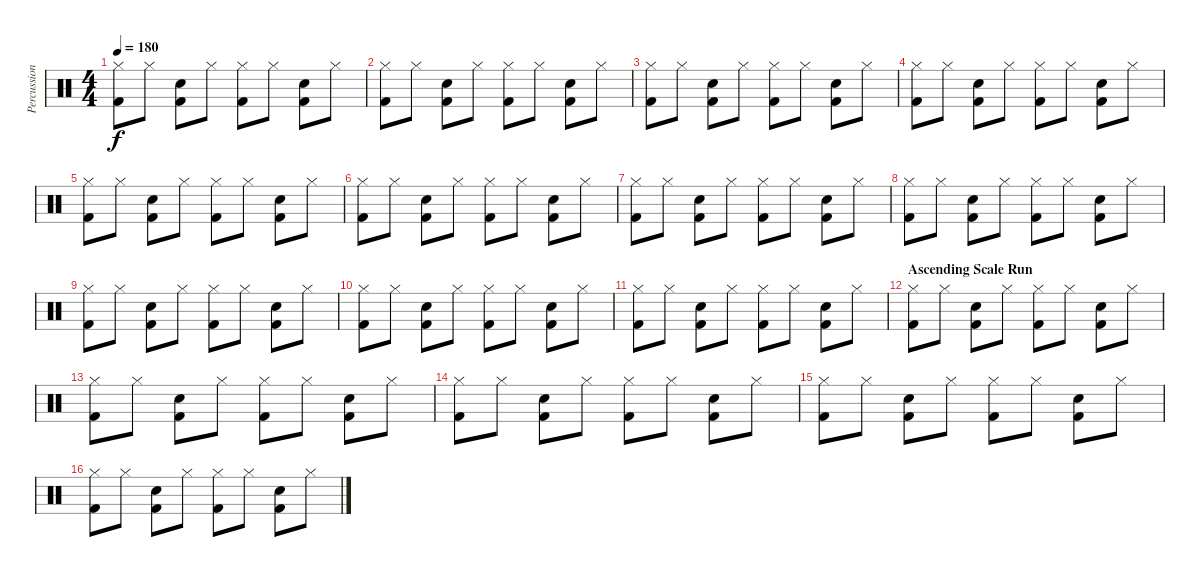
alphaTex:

\track ("Percussion" "Percussion") {instrument percussion}
\staff {score}
\articulation defaults
\ts (4 4)
\tempo 180
\clef neutral
\ks c
("Kick (hit) 2" "Hi-Hat (closed)").8{dy f} "Hi-Hat (closed)".8 ("Kick (hit) 2" "Snare (hit) 2").8 "Hi-Hat (closed)".8 ("Kick (hit) 2" "Hi-Hat (closed)").8 "Hi-Hat (closed)".8 ("Kick (hit) 2" "Electric Snare (hit)").8 "Hi-Hat (closed)".8 |
("Kick (hit) 2" "Hi-Hat (closed)").8 "Hi-Hat (closed)".8 ("Kick (hit) 2" "Snare (hit) 2").8 "Hi-Hat (closed)".8 ("Kick (hit) 2" "Hi-Hat (closed)").8 "Hi-Hat (closed)".8 ("Kick (hit) 2" "Electric Snare (hit)").8 "Hi-Hat (closed)".8 |
("Kick (hit) 2" "Hi-Hat (closed)").8 "Hi-Hat (closed)".8 ("Kick (hit) 2" "Snare (hit) 2").8 "Hi-Hat (closed)".8 ("Kick (hit) 2" "Hi-Hat (closed)").8 "Hi-Hat (closed)".8 ("Kick (hit) 2" "Electric Snare (hit)").8 "Hi-Hat (closed)".8 |
("Kick (hit) 2" "Hi-Hat (closed)").8 "Hi-Hat (closed)".8 ("Kick (hit) 2" "Snare (hit) 2").8 "Hi-Hat (closed)".8 ("Kick (hit) 2" "Hi-Hat (closed)").8 "Hi-Hat (closed)".8 ("Kick (hit) 2" "Electric Snare (hit)").8 "Hi-Hat (closed)".8 |
("Kick (hit) 2" "Hi-Hat (closed)").8 "Hi-Hat (closed)".8 ("Kick (hit) 2" "Snare (hit) 2").8 "Hi-Hat (closed)".8 ("Kick (hit) 2" "Hi-Hat (closed)").8 "Hi-Hat (closed)".8 ("Kick (hit) 2" "Electric Snare (hit)").8 "Hi-Hat (closed)".8 |
("Kick (hit) 2" "Hi-Hat (closed)").8 "Hi-Hat (closed)".8 ("Kick (hit) 2" "Snare (hit) 2").8 "Hi-Hat (closed)".8 ("Kick (hit) 2" "Hi-Hat (closed)").8 "Hi-Hat (closed)".8 ("Kick (hit) 2" "Electric Snare (hit)").8 "Hi-Hat (closed)".8 |
("Kick (hit) 2" "Hi-Hat (closed)").8 "Hi-Hat (closed)".8 ("Kick (hit) 2" "Snare (hit) 2").8 "Hi-Hat (closed)".8 ("Kick (hit) 2" "Hi-Hat (closed)").8 "Hi-Hat (closed)".8 ("Kick (hit) 2" "Electric Snare (hit)").8 "Hi-Hat (closed)".8 |
("Kick (hit) 2" "Hi-Hat (closed)").8 "Hi-Hat (closed)".8 ("Kick (hit) 2" "Snare (hit) 2").8 "Hi-Hat (closed)".8 ("Kick (hit) 2" "Hi-Hat (closed)").8 "Hi-Hat (closed)".8 ("Kick (hit) 2" "Electric Snare (hit)").8 "Hi-Hat (closed)".8 |
("Kick (hit) 2" "Hi-Hat (closed)").8 "Hi-Hat (closed)".8 ("Kick (hit) 2" "Snare (hit) 2").8 "Hi-Hat (closed)".8 ("Kick (hit) 2" "Hi-Hat (closed)").8 "Hi-Hat (closed)".8 ("Kick (hit) 2" "Electric Snare (hit)").8 "Hi-Hat (closed)".8 |
("Kick (hit) 2" "Hi-Hat (closed)").8 "Hi-Hat (closed)".8 ("Kick (hit) 2" "Snare (hit) 2").8 "Hi-Hat (closed)".8 ("Kick (hit) 2" "Hi-Hat (closed)").8 "Hi-Hat (closed)".8 ("Kick (hit) 2" "Electric Snare (hit)").8 "Hi-Hat (closed)".8 |
("Kick (hit) 2" "Hi-Hat (closed)").8 "Hi-Hat (closed)".8 ("Kick (hit) 2" "Snare (hit) 2").8 "Hi-Hat (closed)".8 ("Kick (hit) 2" "Hi-Hat (closed)").8 "Hi-Hat (closed)".8 ("Kick (hit) 2" "Electric Snare (hit)").8 "Hi-Hat (closed)".8 |
\section ("" "Ascending Scale Run")
("Kick (hit) 2" "Hi-Hat (closed)").8 "Hi-Hat (closed)".8 ("Kick (hit) 2" "Snare (hit) 2").8 "Hi-Hat (closed)".8 ("Kick (hit) 2" "Hi-Hat (closed)").8 "Hi-Hat (closed)".8 ("Kick (hit) 2" "Electric Snare (hit)").8 "Hi-Hat (closed)".8 |
("Kick (hit) 2" "Hi-Hat (closed)").8 "Hi-Hat (closed)".8 ("Kick (hit) 2" "Snare (hit) 2").8 "Hi-Hat (closed)".8 ("Kick (hit) 2" "Hi-Hat (closed)").8 "Hi-Hat (closed)".8 ("Kick (hit) 2" "Electric Snare (hit)").8 "Hi-Hat (closed)".8 |
("Kick (hit) 2" "Hi-Hat (closed)").8 "Hi-Hat (closed)".8 ("Kick (hit) 2" "Snare (hit) 2").8 "Hi-Hat (closed)".8 ("Kick (hit) 2" "Hi-Hat (closed)").8 "Hi-Hat (closed)".8 ("Kick (hit) 2" "Electric Snare (hit)").8 "Hi-Hat (closed)".8 |
("Kick (hit) 2" "Hi-Hat (closed)").8 "Hi-Hat (closed)".8 ("Kick (hit) 2" "Snare (hit) 2").8 "Hi-Hat (closed)".8 ("Kick (hit) 2" "Hi-Hat (closed)").8 "Hi-Hat (closed)".8 ("Kick (hit) 2" "Electric Snare (hit)").8 "Hi-Hat (closed)".8 |
("Kick (hit) 2" "Hi-Hat (closed)").8 "Hi-Hat (closed)".8 ("Kick (hit) 2" "Snare (hit) 2").8 "Hi-Hat (closed)".8 ("Kick (hit) 2" "Hi-Hat (closed)").8 "Hi-Hat (closed)".8 ("Kick (hit) 2" "Electric Snare (hit)").8 "Hi-Hat (closed)".8
